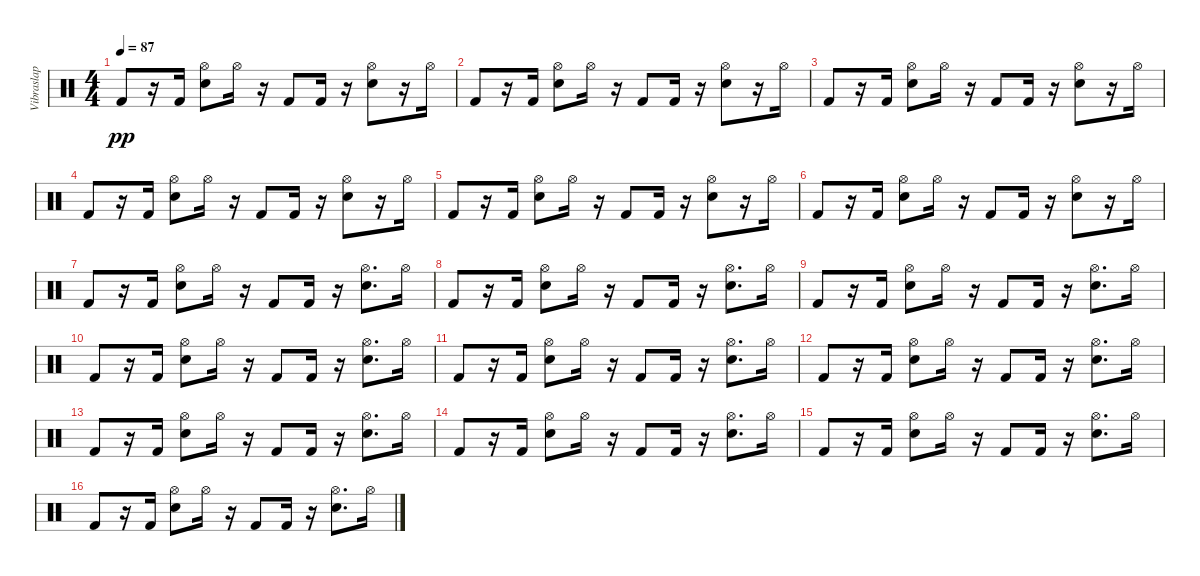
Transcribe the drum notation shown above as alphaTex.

\track ("Vibraslap" "Vibraslap") {instrument percussion}
\staff {score}
\articulation defaults
\ts (4 4)
\tempo 87
\clef neutral
\ks c "Kick (hit) 2".8{dy pp}
r.16 "Kick (hit) 2".16 ("Snare (hit) 2" "Hi-Hat (open)").8 "Hi-Hat (open)".16 r.16 "Kick (hit) 2".8 "Kick (hit) 2".16 r.16 ("Hi-Hat (open)" "Snare (hit) 2").8 r.16 "Hi-Hat (open)".16 |
"Kick (hit) 2".8 r.16 "Kick (hit) 2".16 ("Snare (hit) 2" "Hi-Hat (open)").8 "Hi-Hat (open)".16 r.16 "Kick (hit) 2".8 "Kick (hit) 2".16 r.16 ("Hi-Hat (open)" "Snare (hit) 2").8 r.16 "Hi-Hat (open)".16 |
"Kick (hit) 2".8 r.16 "Kick (hit) 2".16 ("Snare (hit) 2" "Hi-Hat (open)").8 "Hi-Hat (open)".16 r.16 "Kick (hit) 2".8 "Kick (hit) 2".16 r.16 ("Hi-Hat (open)" "Snare (hit) 2").8 r.16 "Hi-Hat (open)".16 |
"Kick (hit) 2".8 r.16 "Kick (hit) 2".16 ("Snare (hit) 2" "Hi-Hat (open)").8 "Hi-Hat (open)".16 r.16 "Kick (hit) 2".8 "Kick (hit) 2".16 r.16 ("Hi-Hat (open)" "Snare (hit) 2").8 r.16 "Hi-Hat (open)".16 |
"Kick (hit) 2".8 r.16 "Kick (hit) 2".16 ("Snare (hit) 2" "Hi-Hat (open)").8 "Hi-Hat (open)".16 r.16 "Kick (hit) 2".8 "Kick (hit) 2".16 r.16 ("Hi-Hat (open)" "Snare (hit) 2").8 r.16 "Hi-Hat (open)".16 |
"Kick (hit) 2".8 r.16 "Kick (hit) 2".16 ("Snare (hit) 2" "Hi-Hat (open)").8 "Hi-Hat (open)".16 r.16 "Kick (hit) 2".8 "Kick (hit) 2".16 r.16 ("Hi-Hat (open)" "Snare (hit) 2").8 r.16 "Hi-Hat (open)".16 |
"Kick (hit) 2".8 r.16 "Kick (hit) 2".16 ("Snare (hit) 2" "Hi-Hat (open)").8 "Hi-Hat (open)".16 r.16 "Kick (hit) 2".8 "Kick (hit) 2".16 r.16 ("Hi-Hat (open)" "Snare (hit) 2").8{d} "Hi-Hat (open)".16 |
"Kick (hit) 2".8 r.16 "Kick (hit) 2".16 ("Snare (hit) 2" "Hi-Hat (open)").8 "Hi-Hat (open)".16 r.16 "Kick (hit) 2".8 "Kick (hit) 2".16 r.16 ("Hi-Hat (open)" "Snare (hit) 2").8{d} "Hi-Hat (open)".16 |
"Kick (hit) 2".8 r.16 "Kick (hit) 2".16 ("Snare (hit) 2" "Hi-Hat (open)").8 "Hi-Hat (open)".16 r.16 "Kick (hit) 2".8 "Kick (hit) 2".16 r.16 ("Hi-Hat (open)" "Snare (hit) 2").8{d} "Hi-Hat (open)".16 |
"Kick (hit) 2".8 r.16 "Kick (hit) 2".16 ("Snare (hit) 2" "Hi-Hat (open)").8 "Hi-Hat (open)".16 r.16 "Kick (hit) 2".8 "Kick (hit) 2".16 r.16 ("Hi-Hat (open)" "Snare (hit) 2").8{d} "Hi-Hat (open)".16 |
"Kick (hit) 2".8 r.16 "Kick (hit) 2".16 ("Snare (hit) 2" "Hi-Hat (open)").8 "Hi-Hat (open)".16 r.16 "Kick (hit) 2".8 "Kick (hit) 2".16 r.16 ("Hi-Hat (open)" "Snare (hit) 2").8{d} "Hi-Hat (open)".16 |
"Kick (hit) 2".8 r.16 "Kick (hit) 2".16 ("Snare (hit) 2" "Hi-Hat (open)").8 "Hi-Hat (open)".16 r.16 "Kick (hit) 2".8 "Kick (hit) 2".16 r.16 ("Hi-Hat (open)" "Snare (hit) 2").8{d} "Hi-Hat (open)".16 |
"Kick (hit) 2".8 r.16 "Kick (hit) 2".16 ("Snare (hit) 2" "Hi-Hat (open)").8 "Hi-Hat (open)".16 r.16 "Kick (hit) 2".8 "Kick (hit) 2".16 r.16 ("Hi-Hat (open)" "Snare (hit) 2").8{d} "Hi-Hat (open)".16 |
"Kick (hit) 2".8 r.16 "Kick (hit) 2".16 ("Snare (hit) 2" "Hi-Hat (open)").8 "Hi-Hat (open)".16 r.16 "Kick (hit) 2".8 "Kick (hit) 2".16 r.16 ("Hi-Hat (open)" "Snare (hit) 2").8{d} "Hi-Hat (open)".16 |
"Kick (hit) 2".8 r.16 "Kick (hit) 2".16 ("Snare (hit) 2" "Hi-Hat (open)").8 "Hi-Hat (open)".16 r.16 "Kick (hit) 2".8 "Kick (hit) 2".16 r.16 ("Hi-Hat (open)" "Snare (hit) 2").8{d} "Hi-Hat (open)".16 |
"Kick (hit) 2".8 r.16 "Kick (hit) 2".16 ("Snare (hit) 2" "Hi-Hat (open)").8 "Hi-Hat (open)".16 r.16 "Kick (hit) 2".8 "Kick (hit) 2".16 r.16 ("Hi-Hat (open)" "Snare (hit) 2").8{d} "Hi-Hat (open)".16
